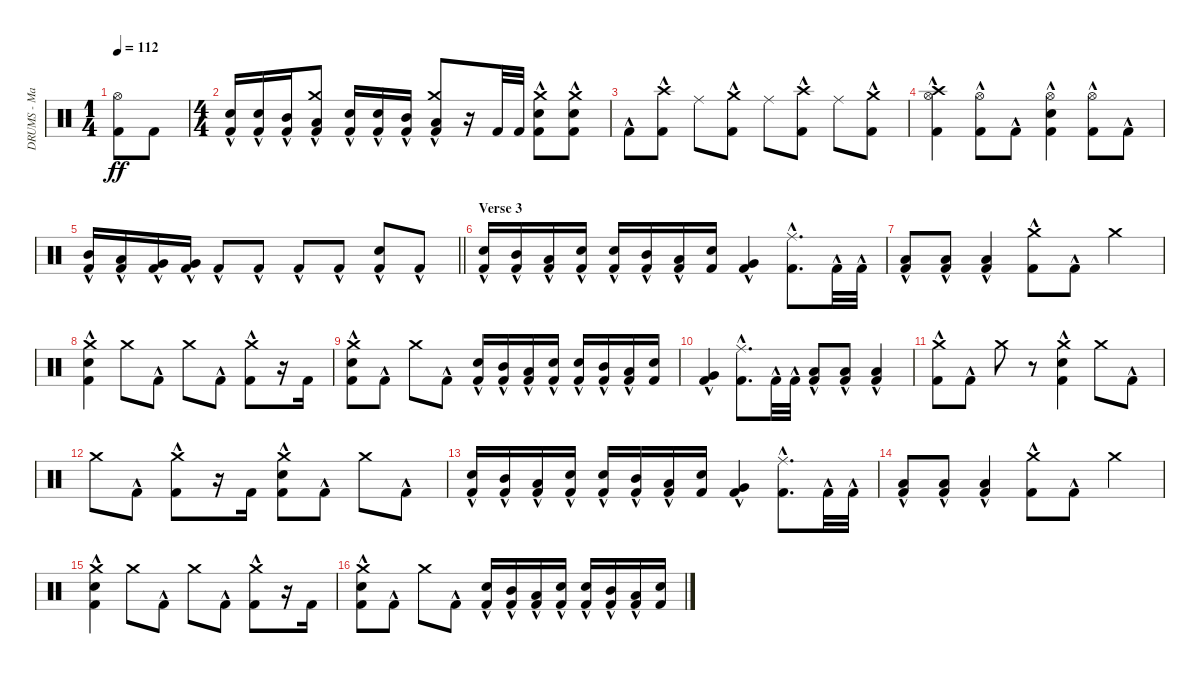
\track ("DRUMS - Mario Duplantier" "DRUMS - Ma") {instrument percussion}
\staff {score}
\articulation defaults
\ts (1 4)
\tempo 112
\clef neutral
\ks c
("Hi-Hat (open)" "Kick (hit) 2").8{dy ff} "Kick (hit) 2".8 |
\ts (4 4)
("Electric Snare (hit)" "Kick (hit) 2"{hac}).16 ("Electric Snare (hit)" "Kick (hit) 2"{hac}).16 ("Mid Tom (hit)" "Kick (hit) 2"{hac}).16 ("Crash medium (hit)" "Low Tom (hit)" "Kick (hit) 2"{hac}).8 ("Electric Snare (hit)" "Kick (hit) 2"{hac}).16 ("Electric Snare (hit)" "Kick (hit) 2"{hac}).16 ("Mid Tom (hit)" "Kick (hit) 2"{hac}).16 ("Crash medium (hit)" "Low Tom (hit)" "Kick (hit) 2"{hac}).8 r.16 "Kick (hit) 2".32 "Kick (hit) 2".32 ("Crash medium (hit)" "Electric Snare (hit)" "Kick (hit) 2"{hac}).8 ("Crash medium (hit)" "Electric Snare (hit)" "Kick (hit) 2"{hac}).8 |
"Kick (hit) 2"{hac}.8 ("Crash high (hit)" "Kick (hit) 2"{hac}).8 "Ride (middle)".8 ("Crash medium (hit)" "Kick (hit) 2"{hac}).8 "Ride (middle)".8 ("Crash high (hit)" "Kick (hit) 2"{hac}).8 "Ride (middle)".8 ("Crash medium (hit)" "Kick (hit) 2"{hac}).8 |
("Crash high (hit)" "Hi-Hat (open)"{hac} "Kick (hit) 2"{hac}).4 ("Hi-Hat (open)"{hac} "Kick (hit) 2"{hac}).8 "Kick (hit) 2"{hac}.8 ("Hi-Hat (open)"{hac} "Electric Snare (hit)" "Kick (hit) 2"{hac}).4 ("Hi-Hat (open)"{hac} "Kick (hit) 2"{hac}).8 "Kick (hit) 2"{hac}.8 |
\barLineRight lightlight
("Mid Tom (hit)" "Kick (hit) 2"{hac}).16 ("Low Tom (hit)" "Kick (hit) 2"{hac}).16 ("Very Low Tom (hit)" "Kick (hit) 2"{hac}).16 ("Very Low Tom (hit)" "Kick (hit) 2"{hac}).16 "Kick (hit) 2"{hac}.8 "Kick (hit) 2"{hac}.8 "Kick (hit) 2"{hac}.8 "Kick (hit) 2"{hac}.8 ("Electric Snare (hit)" "Kick (hit) 2"{hac}).8 "Kick (hit) 2"{hac}.8 |
\section ("" "Verse 3")
("Electric Snare (hit)" "Kick (hit) 2"{hac}).16 ("Mid Tom (hit)" "Kick (hit) 2"{hac}).16 ("Low Tom (hit)" "Kick (hit) 2"{hac}).16 ("Electric Snare (hit)" "Kick (hit) 2"{hac}).16 ("Electric Snare (hit)" "Kick (hit) 2"{hac}).16 ("Mid Tom (hit)" "Kick (hit) 2"{hac}).16 ("Low Tom (hit)" "Kick (hit) 2"{hac}).16 ("Electric Snare (hit)" "Kick (hit) 2").16 ("Very Low Tom (hit)" "Kick (hit) 2"{hac}).4 ("Ride (middle)" "Kick (hit) 2"{hac}).8{d} "Kick (hit) 2"{hac}.32 "Kick (hit) 2"{hac}.32 |
("Low Tom (hit)" "Kick (hit) 2"{hac}).8 ("Low Tom (hit)" "Kick (hit) 2"{hac}).8 ("Low Tom (hit)" "Kick (hit) 2"{hac}).4 ("Crash medium (hit)" "Kick (hit) 2"{hac}).8 "Kick (hit) 2"{hac}.8 "Crash medium (hit)".4 |
("Crash medium (hit)" "Electric Snare (hit)" "Kick (hit) 2"{hac}).4 "Crash medium (hit)".8 "Kick (hit) 2"{hac}.8 "Crash medium (hit)".8 "Kick (hit) 2"{hac}.8 ("Crash medium (hit)" "Kick (hit) 2"{hac}).8 r.16 "Kick (hit) 2".16 |
("Crash medium (hit)" "Electric Snare (hit)" "Kick (hit) 2"{hac}).8 "Kick (hit) 2"{hac}.8 "Crash medium (hit)".8 "Kick (hit) 2"{hac}.8 ("Electric Snare (hit)" "Kick (hit) 2"{hac}).16 ("Mid Tom (hit)" "Kick (hit) 2"{hac}).16 ("Low Tom (hit)" "Kick (hit) 2"{hac}).16 ("Electric Snare (hit)" "Kick (hit) 2"{hac}).16 ("Electric Snare (hit)" "Kick (hit) 2"{hac}).16 ("Mid Tom (hit)" "Kick (hit) 2"{hac}).16 ("Low Tom (hit)" "Kick (hit) 2"{hac}).16 ("Electric Snare (hit)" "Kick (hit) 2").16 |
("Very Low Tom (hit)" "Kick (hit) 2"{hac}).4 ("Ride (middle)" "Kick (hit) 2"{hac}).8{d} "Kick (hit) 2"{hac}.32 "Kick (hit) 2"{hac}.32 ("Low Tom (hit)" "Kick (hit) 2"{hac}).8 ("Low Tom (hit)" "Kick (hit) 2"{hac}).8 ("Low Tom (hit)" "Kick (hit) 2"{hac}).4 |
("Crash medium (hit)" "Kick (hit) 2"{hac}).8 "Kick (hit) 2"{hac}.8 "Crash medium (hit)".8 r.8 ("Crash medium (hit)" "Electric Snare (hit)" "Kick (hit) 2"{hac}).4 "Crash medium (hit)".8 "Kick (hit) 2"{hac}.8 |
"Crash medium (hit)".8 "Kick (hit) 2"{hac}.8 ("Crash medium (hit)" "Kick (hit) 2"{hac}).8 r.16 "Kick (hit) 2".16 ("Crash medium (hit)" "Electric Snare (hit)" "Kick (hit) 2"{hac}).8 "Kick (hit) 2"{hac}.8 "Crash medium (hit)".8 "Kick (hit) 2"{hac}.8 |
("Electric Snare (hit)" "Kick (hit) 2"{hac}).16 ("Mid Tom (hit)" "Kick (hit) 2"{hac}).16 ("Low Tom (hit)" "Kick (hit) 2"{hac}).16 ("Electric Snare (hit)" "Kick (hit) 2"{hac}).16 ("Electric Snare (hit)" "Kick (hit) 2"{hac}).16 ("Mid Tom (hit)" "Kick (hit) 2"{hac}).16 ("Low Tom (hit)" "Kick (hit) 2"{hac}).16 ("Electric Snare (hit)" "Kick (hit) 2").16 ("Very Low Tom (hit)" "Kick (hit) 2"{hac}).4 ("Ride (middle)" "Kick (hit) 2"{hac}).8{d} "Kick (hit) 2"{hac}.32 "Kick (hit) 2"{hac}.32 |
("Low Tom (hit)" "Kick (hit) 2"{hac}).8 ("Low Tom (hit)" "Kick (hit) 2"{hac}).8 ("Low Tom (hit)" "Kick (hit) 2"{hac}).4 ("Crash medium (hit)" "Kick (hit) 2"{hac}).8 "Kick (hit) 2"{hac}.8 "Crash medium (hit)".4 |
("Crash medium (hit)" "Electric Snare (hit)" "Kick (hit) 2"{hac}).4 "Crash medium (hit)".8 "Kick (hit) 2"{hac}.8 "Crash medium (hit)".8 "Kick (hit) 2"{hac}.8 ("Crash medium (hit)" "Kick (hit) 2"{hac}).8 r.16 "Kick (hit) 2".16 |
("Crash medium (hit)" "Electric Snare (hit)" "Kick (hit) 2"{hac}).8 "Kick (hit) 2"{hac}.8 "Crash medium (hit)".8 "Kick (hit) 2"{hac}.8 ("Electric Snare (hit)" "Kick (hit) 2"{hac}).16 ("Mid Tom (hit)" "Kick (hit) 2"{hac}).16 ("Low Tom (hit)" "Kick (hit) 2"{hac}).16 ("Electric Snare (hit)" "Kick (hit) 2"{hac}).16 ("Electric Snare (hit)" "Kick (hit) 2"{hac}).16 ("Mid Tom (hit)" "Kick (hit) 2"{hac}).16 ("Low Tom (hit)" "Kick (hit) 2"{hac}).16 ("Electric Snare (hit)" "Kick (hit) 2").16
